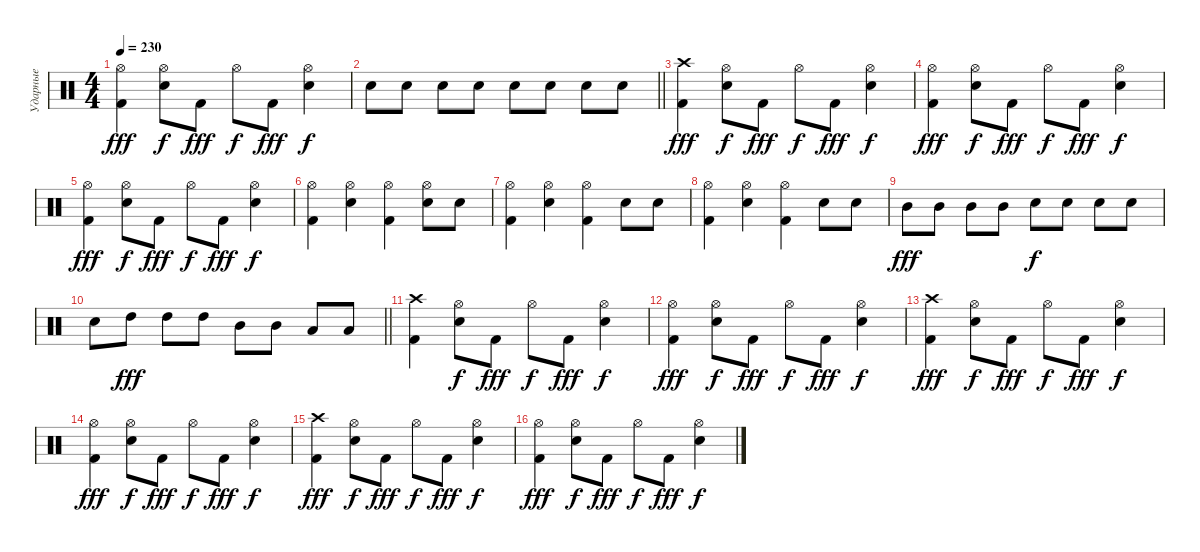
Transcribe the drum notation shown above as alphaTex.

\track ("Ударные" "Ударные") {instrument percussion}
\staff
\articulation defaults
\ts (4 4)
\tempo 230
\clef neutral
\ks c
("Kick (hit) 2" "Hi-Hat (open)").4{dy fff} ("Snare (hit) 2" "Hi-Hat (open)").8{dy f} "Kick (hit) 2".8{dy fff} "Hi-Hat (open)".8{dy f} "Kick (hit) 2".8{dy fff} ("Snare (hit) 2" "Hi-Hat (open)").4{dy f} |
\barLineRight lightlight "Snare (hit) 2".8 "Snare (hit) 2".8 "Snare (hit) 2".8 "Snare (hit) 2".8 "Snare (hit) 2".8 "Snare (hit) 2".8 "Snare (hit) 2".8 "Snare (hit) 2".8
|
("Kick (hit) 2" "Crash high (hit)").4{dy fff} ("Snare (hit) 2" "Hi-Hat (open)").8{dy f} "Kick (hit) 2".8{dy fff} "Hi-Hat (open)".8{dy f} "Kick (hit) 2".8{dy fff} ("Snare (hit) 2" "Hi-Hat (open)").4{dy f} |
("Kick (hit) 2" "Hi-Hat (open)").4{dy fff} ("Snare (hit) 2" "Hi-Hat (open)").8{dy f} "Kick (hit) 2".8{dy fff} "Hi-Hat (open)".8{dy f} "Kick (hit) 2".8{dy fff} ("Snare (hit) 2" "Hi-Hat (open)").4{dy f} |
("Kick (hit) 2" "Hi-Hat (open)").4{dy fff} ("Snare (hit) 2" "Hi-Hat (open)").8{dy f} "Kick (hit) 2".8{dy fff} "Hi-Hat (open)".8{dy f} "Kick (hit) 2".8{dy fff} ("Snare (hit) 2" "Hi-Hat (open)").4{dy f} |
("Kick (hit) 2" "Hi-Hat (open)").4 ("Snare (hit) 2" "Hi-Hat (open)").4 ("Kick (hit) 2" "Hi-Hat (open)").4 ("Snare (hit) 2" "Hi-Hat (open)").8 "Snare (hit) 2".8 |
("Kick (hit) 2" "Hi-Hat (open)").4 ("Snare (hit) 2" "Hi-Hat (open)").4 ("Kick (hit) 2" "Hi-Hat (open)").4 "Snare (hit) 2".8 "Snare (hit) 2".8 |
("Kick (hit) 2" "Hi-Hat (open)").4 ("Snare (hit) 2" "Hi-Hat (open)").4 ("Kick (hit) 2" "Hi-Hat (open)").4 "Snare (hit) 2".8 "Snare (hit) 2".8 |
"Mid Tom (hit)".8{dy fff} "Mid Tom (hit)".8 "Mid Tom (hit)".8 "Mid Tom (hit)".8 "Snare (hit) 2".8{dy f} "Snare (hit) 2".8 "Snare (hit) 2".8 "Snare (hit) 2".8 |
\barLineRight lightlight "Snare (hit) 2".8 "High Tom (hit)".8{dy fff} "High Tom (hit)".8 "High Tom (hit)".8 "Mid Tom (hit)".8 "Mid Tom (hit)".8 "Low Tom (hit)".8 "Low Tom (hit)".8
|
("Kick (hit) 2" "Crash high (hit)").4 ("Snare (hit) 2" "Hi-Hat (open)").8{dy f} "Kick (hit) 2".8{dy fff} "Hi-Hat (open)".8{dy f} "Kick (hit) 2".8{dy fff} ("Snare (hit) 2" "Hi-Hat (open)").4{dy f} |
("Kick (hit) 2" "Hi-Hat (open)").4{dy fff} ("Snare (hit) 2" "Hi-Hat (open)").8{dy f} "Kick (hit) 2".8{dy fff} "Hi-Hat (open)".8{dy f} "Kick (hit) 2".8{dy fff} ("Snare (hit) 2" "Hi-Hat (open)").4{dy f} |
("Kick (hit) 2" "Crash high (hit)").4{dy fff} ("Snare (hit) 2" "Hi-Hat (open)").8{dy f} "Kick (hit) 2".8{dy fff} "Hi-Hat (open)".8{dy f} "Kick (hit) 2".8{dy fff} ("Snare (hit) 2" "Hi-Hat (open)").4{dy f} |
("Kick (hit) 2" "Hi-Hat (open)").4{dy fff} ("Snare (hit) 2" "Hi-Hat (open)").8{dy f} "Kick (hit) 2".8{dy fff} "Hi-Hat (open)".8{dy f} "Kick (hit) 2".8{dy fff} ("Snare (hit) 2" "Hi-Hat (open)").4{dy f} |
("Kick (hit) 2" "Crash high (hit)").4{dy fff} ("Snare (hit) 2" "Hi-Hat (open)").8{dy f} "Kick (hit) 2".8{dy fff} "Hi-Hat (open)".8{dy f} "Kick (hit) 2".8{dy fff} ("Snare (hit) 2" "Hi-Hat (open)").4{dy f} |
("Kick (hit) 2" "Hi-Hat (open)").4{dy fff} ("Snare (hit) 2" "Hi-Hat (open)").8{dy f} "Kick (hit) 2".8{dy fff} "Hi-Hat (open)".8{dy f} "Kick (hit) 2".8{dy fff} ("Snare (hit) 2" "Hi-Hat (open)").4{dy f}
